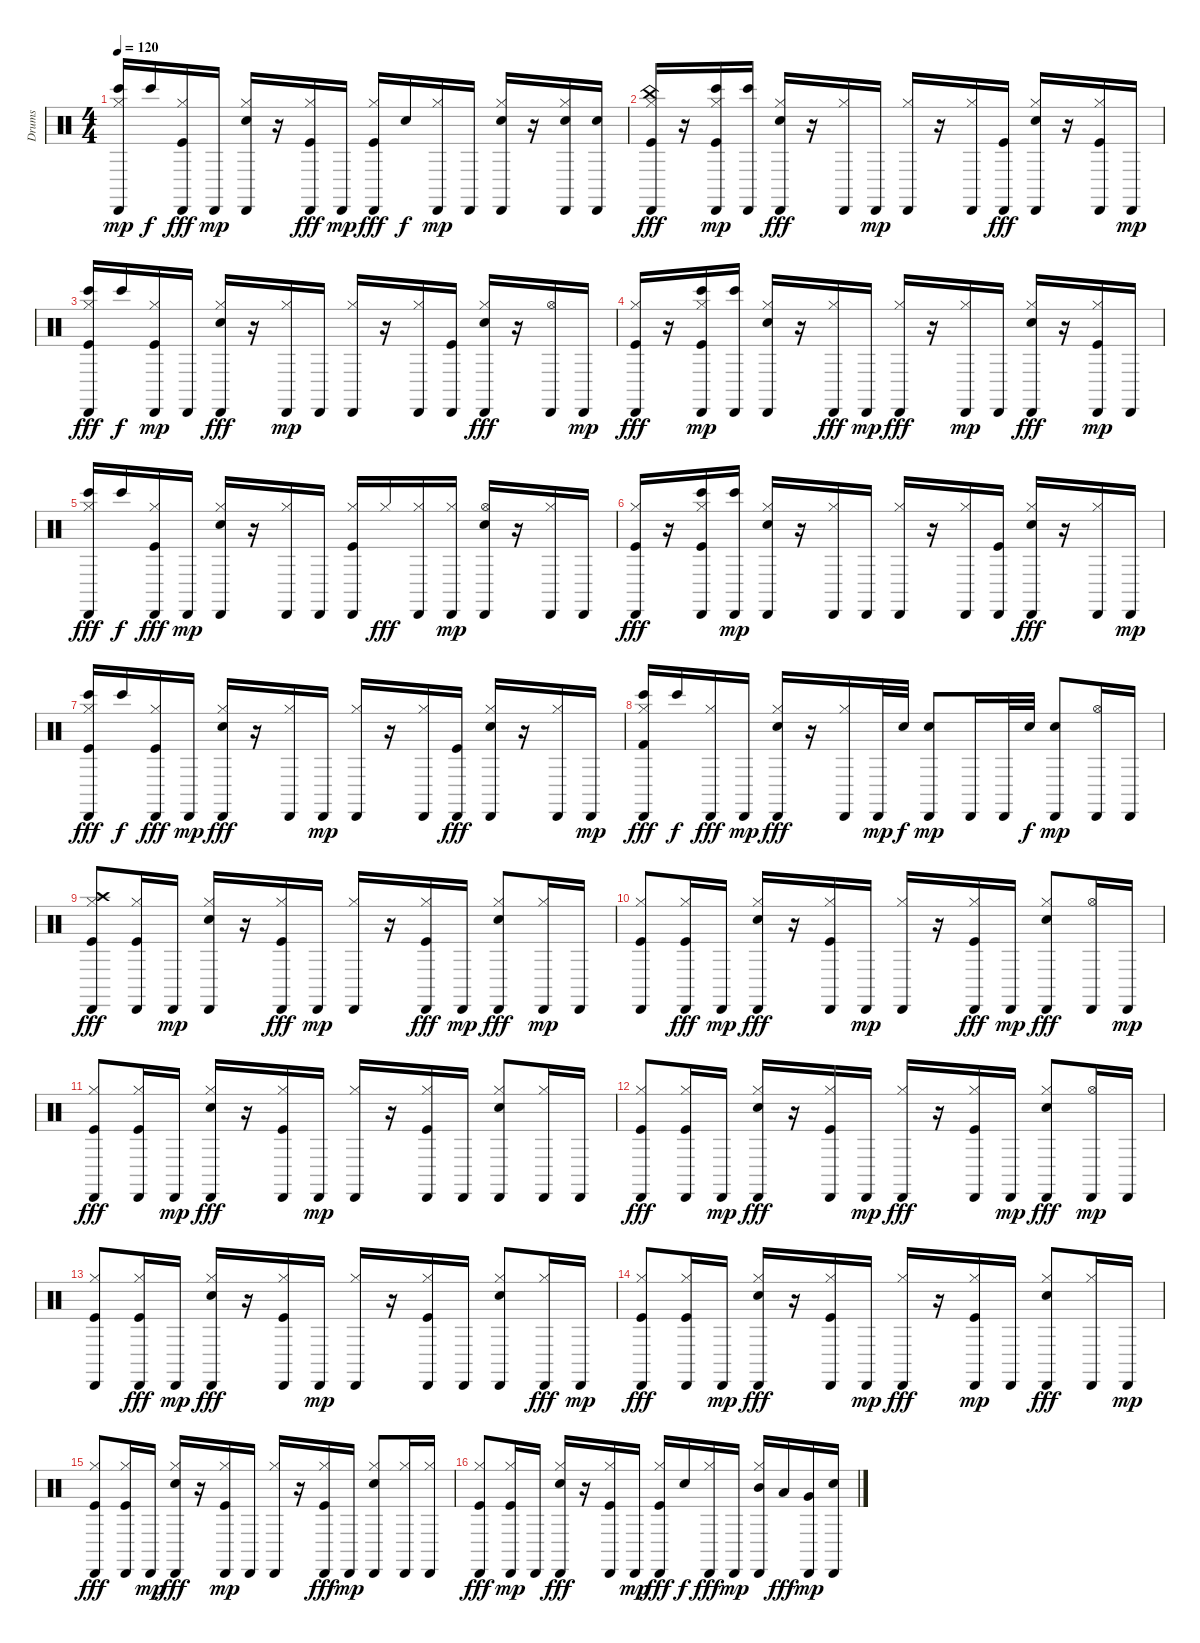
\track ("Drums" "Drums") {instrument percussion}
\staff {score}
\articulation defaults
\ts (4 4)
\tempo 120
\clef neutral
\ks c
("Hi-Hat (closed)" "Bongo High (hit)" "Cabasa (hit)").16{dy mp} "Bongo High (hit)".16{dy f} ("Hi-Hat (closed)" "Cabasa (hit)" "Kick (hit)").16{dy fff} "Cabasa (hit)".16{dy mp} ("Hi-Hat (closed)" "Snare (hit) 2" "Cabasa (hit)").16 r.16 ("Cabasa (hit)" "Hi-Hat (closed)" "Kick (hit)").16{dy fff} "Cabasa (hit)".16{dy mp} ("Cabasa (hit)" "Hi-Hat (closed)" "Kick (hit)").16{dy fff} "Snare (hit) 2".16{dy f} ("Hi-Hat (closed)" "Cabasa (hit)").16{dy mp} "Cabasa (hit)".16 ("Hi-Hat (closed)" "Cabasa (hit)" "Snare (hit) 2").16 r.16 ("Hi-Hat (closed)" "Snare (hit) 2" "Cabasa (hit)").16 ("Cabasa (hit)" "Snare (hit) 2").16 |
("Hi-Hat (closed)" "Cabasa (hit)" "Kick (hit)" "China (hit)").16{dy fff} r.16 ("Kick (hit)" "Hi-Hat (closed)" "Cabasa (hit)" "Bongo High (hit)").16{dy mp} ("Bongo High (hit)" "Cabasa (hit)").16 ("Cabasa (hit)" "Hi-Hat (closed)" "Snare (hit) 2").16{dy fff} r.16 ("Cabasa (hit)" "Hi-Hat (closed)").16 "Cabasa (hit)".16{dy mp} ("Hi-Hat (closed)" "Cabasa (hit)").16 r.16 ("Hi-Hat (closed)" "Cabasa (hit)").16 ("Cabasa (hit)" "Kick (hit)").16{dy fff} ("Cabasa (hit)" "Snare (hit) 2" "Hi-Hat (closed)").16 r.16 ("Cabasa (hit)" "Kick (hit)" "Hi-Hat (closed)").16 "Cabasa (hit)".16{dy mp} |
("Cabasa (hit)" "Bongo High (hit)" "Hi-Hat (closed)" "Kick (hit)").16{dy fff} "Bongo High (hit)".16{dy f} ("Hi-Hat (closed)" "Kick (hit)" "Cabasa (hit)").16{dy mp} "Cabasa (hit)".16 ("Cabasa (hit)" "Snare (hit) 2" "Hi-Hat (closed)").16{dy fff} r.16 ("Hi-Hat (closed)" "Cabasa (hit)").16{dy mp} "Cabasa (hit)".16 ("Hi-Hat (closed)" "Cabasa (hit)").16 r.16 ("Hi-Hat (closed)" "Cabasa (hit)").16 ("Kick (hit)" "Cabasa (hit)").16 ("Snare (hit) 2" "Cabasa (hit)" "Hi-Hat (closed)").16{dy fff} r.16 ("Cabasa (hit)" "Hi-Hat (open)").16 "Cabasa (hit)".16{dy mp} |
("Cabasa (hit)" "Kick (hit)" "Hi-Hat (closed)").16{dy fff} r.16 ("Kick (hit)" "Hi-Hat (closed)" "Cabasa (hit)" "Bongo High (hit)").16{dy mp} ("Cabasa (hit)" "Bongo High (hit)").16 ("Snare (hit) 2" "Hi-Hat (closed)" "Cabasa (hit)").16 r.16 ("Cabasa (hit)" "Hi-Hat (closed)").16{dy fff} "Cabasa (hit)".16{dy mp} ("Cabasa (hit)" "Hi-Hat (closed)").16{dy fff} r.16 ("Hi-Hat (closed)" "Cabasa (hit)").16{dy mp} "Cabasa (hit)".16 ("Cabasa (hit)" "Hi-Hat (closed)" "Snare (hit) 2").16{dy fff} r.16 ("Hi-Hat (closed)" "Kick (hit)" "Cabasa (hit)").16{dy mp} "Cabasa (hit)".16 |
("Bongo High (hit)" "Cabasa (hit)" "Hi-Hat (closed)").16{dy fff} "Bongo High (hit)".16{dy f} ("Hi-Hat (closed)" "Cabasa (hit)" "Kick (hit)").16{dy fff} "Cabasa (hit)".16{dy mp} ("Snare (hit) 2" "Hi-Hat (closed)" "Cabasa (hit)").16 r.16 ("Hi-Hat (closed)" "Cabasa (hit)").16 "Cabasa (hit)".16 ("Kick (hit)" "Hi-Hat (closed)" "Cabasa (hit)").16 "Hi-Hat (closed)".16{dy fff} ("Cabasa (hit)" "Hi-Hat (closed)").16 ("Hi-Hat (closed)" "Cabasa (hit)").16{dy mp} ("Hi-Hat (open)" "Snare (hit) 2" "Cabasa (hit)").16 r.16 ("Hi-Hat (closed)" "Cabasa (hit)").16 "Cabasa (hit)".16 |
("Hi-Hat (closed)" "Cabasa (hit)" "Kick (hit)").16{dy fff} r.16 ("Kick (hit)" "Cabasa (hit)" "Hi-Hat (closed)" "Bongo High (hit)").16 ("Bongo High (hit)" "Cabasa (hit)").16{dy mp} ("Hi-Hat (closed)" "Cabasa (hit)" "Snare (hit) 2").16 r.16 ("Hi-Hat (closed)" "Cabasa (hit)").16 "Cabasa (hit)".16 ("Hi-Hat (closed)" "Cabasa (hit)").16 r.16 ("Hi-Hat (closed)" "Cabasa (hit)").16 ("Kick (hit)" "Cabasa (hit)").16 ("Snare (hit) 2" "Cabasa (hit)" "Hi-Hat (closed)").16{dy fff} r.16 ("Cabasa (hit)" "Hi-Hat (closed)").16 "Cabasa (hit)".16{dy mp} |
("Cabasa (hit)" "Hi-Hat (closed)" "Kick (hit)" "Bongo High (hit)").16{dy fff} "Bongo High (hit)".16{dy f} ("Cabasa (hit)" "Hi-Hat (closed)" "Kick (hit)").16{dy fff} "Cabasa (hit)".16{dy mp} ("Cabasa (hit)" "Snare (hit) 2" "Hi-Hat (closed)").16{dy fff} r.16 ("Cabasa (hit)" "Hi-Hat (closed)").16 "Cabasa (hit)".16{dy mp} ("Hi-Hat (closed)" "Cabasa (hit)").16 r.16 ("Hi-Hat (closed)" "Cabasa (hit)").16 ("Cabasa (hit)" "Kick (hit)").16{dy fff} ("Cabasa (hit)" "Hi-Hat (closed)" "Snare (hit) 2").16 r.16 ("Cabasa (hit)" "Hi-Hat (closed)").16 "Cabasa (hit)".16{dy mp} |
("Cabasa (hit)" "Kick (hit) 2" "Hi-Hat (closed)" "Bongo High (hit)").16{dy fff} "Bongo High (hit)".16{dy f} ("Cabasa (hit)" "Hi-Hat (closed)").16{dy fff} "Cabasa (hit)".16{dy mp} ("Cabasa (hit)" "Snare (hit) 2" "Hi-Hat (closed)").16{dy fff} r.16 ("Cabasa (hit)" "Hi-Hat (closed)").16 "Cabasa (hit)".32{dy mp} "Electric Snare (hit)".32{dy f} ("Cabasa (hit)" "Snare (hit) 2").8{dy mp} "Cabasa (hit)".16 "Cabasa (hit)".32 "Electric Snare (hit)".32{dy f} ("Snare (hit) 2" "Cabasa (hit)").8{dy mp} ("Hi-Hat (open)" "Cabasa (hit)").16 "Cabasa (hit)".16 |
("Kick (hit)" "Cabasa (hit)" "Hi-Hat (closed)" "Crash high (hit)").8{dy fff} ("Hi-Hat (closed)" "Cabasa (hit)" "Kick (hit)").16 "Cabasa (hit)".16{dy mp} ("Hi-Hat (closed)" "Cabasa (hit)" "Snare (hit) 2").16 r.16 ("Hi-Hat (closed)" "Cabasa (hit)" "Kick (hit)").16{dy fff} "Cabasa (hit)".16{dy mp} ("Hi-Hat (closed)" "Cabasa (hit)").16 r.16 ("Kick (hit)" "Cabasa (hit)" "Hi-Hat (closed)").16{dy fff} "Cabasa (hit)".16{dy mp} ("Cabasa (hit)" "Hi-Hat (closed)" "Snare (hit) 2").8{dy fff} ("Hi-Hat (closed)" "Cabasa (hit)").16{dy mp} "Cabasa (hit)".16 |
("Hi-Hat (closed)" "Kick (hit)" "Cabasa (hit)").8 ("Kick (hit)" "Cabasa (hit)" "Hi-Hat (closed)").16{dy fff} "Cabasa (hit)".16{dy mp} ("Cabasa (hit)" "Snare (hit) 2" "Hi-Hat (closed)").16{dy fff} r.16 ("Cabasa (hit)" "Hi-Hat (closed)" "Kick (hit)").16 "Cabasa (hit)".16{dy mp} ("Hi-Hat (closed)" "Cabasa (hit)").16 r.16 ("Cabasa (hit)" "Hi-Hat (closed)" "Kick (hit)").16{dy fff} "Cabasa (hit)".16{dy mp} ("Cabasa (hit)" "Snare (hit) 2" "Hi-Hat (closed)").8{dy fff} ("Cabasa (hit)" "Hi-Hat (open)").16 "Cabasa (hit)".16{dy mp} |
("Cabasa (hit)" "Hi-Hat (closed)" "Kick (hit)").8{dy fff} ("Cabasa (hit)" "Kick (hit)" "Hi-Hat (closed)").16 "Cabasa (hit)".16{dy mp} ("Cabasa (hit)" "Hi-Hat (closed)" "Snare (hit) 2").16{dy fff} r.16 ("Kick (hit)" "Cabasa (hit)" "Hi-Hat (closed)").16 "Cabasa (hit)".16{dy mp} ("Hi-Hat (closed)" "Cabasa (hit)").16 r.16 ("Kick (hit)" "Hi-Hat (closed)" "Cabasa (hit)").16 "Cabasa (hit)".16 ("Snare (hit) 2" "Hi-Hat (closed)" "Cabasa (hit)").8 ("Hi-Hat (closed)" "Cabasa (hit)").16 "Cabasa (hit)".16 |
("Cabasa (hit)" "Hi-Hat (closed)" "Kick (hit)").8{dy fff} ("Kick (hit)" "Cabasa (hit)" "Hi-Hat (closed)").16 "Cabasa (hit)".16{dy mp} ("Cabasa (hit)" "Snare (hit) 2" "Hi-Hat (closed)").16{dy fff} r.16 ("Hi-Hat (closed)" "Cabasa (hit)" "Kick (hit)").16 "Cabasa (hit)".16{dy mp} ("Cabasa (hit)" "Hi-Hat (closed)").16{dy fff} r.16 ("Hi-Hat (closed)" "Cabasa (hit)" "Kick (hit)").16 "Cabasa (hit)".16{dy mp} ("Snare (hit) 2" "Cabasa (hit)" "Hi-Hat (closed)").8{dy fff} ("Hi-Hat (open)" "Cabasa (hit)").16{dy mp} "Cabasa (hit)".16 |
("Kick (hit)" "Hi-Hat (closed)" "Cabasa (hit)").8 ("Cabasa (hit)" "Kick (hit)" "Hi-Hat (closed)").16{dy fff} "Cabasa (hit)".16{dy mp} ("Cabasa (hit)" "Hi-Hat (closed)" "Snare (hit) 2").16{dy fff} r.16 ("Kick (hit)" "Cabasa (hit)" "Hi-Hat (closed)").16 "Cabasa (hit)".16{dy mp} ("Hi-Hat (closed)" "Cabasa (hit)").16 r.16 ("Kick (hit)" "Hi-Hat (closed)" "Cabasa (hit)").16 "Cabasa (hit)".16 ("Snare (hit) 2" "Hi-Hat (closed)" "Cabasa (hit)").8 ("Cabasa (hit)" "Hi-Hat (closed)").16{dy fff} "Cabasa (hit)".16{dy mp} |
("Cabasa (hit)" "Kick (hit)" "Hi-Hat (closed)").8{dy fff} ("Cabasa (hit)" "Kick (hit)" "Hi-Hat (closed)").16 "Cabasa (hit)".16{dy mp} ("Cabasa (hit)" "Snare (hit) 2" "Hi-Hat (closed)").16{dy fff} r.16 ("Cabasa (hit)" "Kick (hit)" "Hi-Hat (closed)").16 "Cabasa (hit)".16{dy mp} ("Cabasa (hit)" "Hi-Hat (closed)").16{dy fff} r.16 ("Hi-Hat (closed)" "Kick (hit)" "Cabasa (hit)").16{dy mp} "Cabasa (hit)".16 ("Cabasa (hit)" "Hi-Hat (closed)" "Snare (hit) 2").8{dy fff} ("Cabasa (hit)" "Hi-Hat (closed)").16 "Cabasa (hit)".16{dy mp} |
("Cabasa (hit)" "Kick (hit)" "Hi-Hat (closed)").8{dy fff} ("Cabasa (hit)" "Kick (hit)" "Hi-Hat (closed)").16 "Cabasa (hit)".16{dy mp} ("Snare (hit) 2" "Cabasa (hit)" "Hi-Hat (closed)").16{dy fff} r.16 ("Kick (hit)" "Hi-Hat (closed)" "Cabasa (hit)").16{dy mp} "Cabasa (hit)".16 ("Hi-Hat (closed)" "Cabasa (hit)").16 r.16 ("Cabasa (hit)" "Hi-Hat (closed)" "Kick (hit)").16{dy fff} "Cabasa (hit)".16{dy mp} ("Hi-Hat (closed)" "Snare (hit) 2" "Cabasa (hit)").8 ("Hi-Hat (closed)" "Cabasa (hit)").16 ("Hi-Hat (closed)" "Cabasa (hit)").16 |
("Cabasa (hit)" "Kick (hit)" "Hi-Hat (closed)").8{dy fff} ("Kick (hit)" "Hi-Hat (closed)" "Cabasa (hit)").16{dy mp} "Cabasa (hit)".16 ("Snare (hit) 2" "Cabasa (hit)" "Hi-Hat (closed)").16{dy fff} r.16 ("Kick (hit)" "Cabasa (hit)" "Hi-Hat (closed)").16 "Cabasa (hit)".16{dy mp} ("Cabasa (hit)" "Hi-Hat (closed)" "Kick (hit)").16{dy fff} "Snare (hit) 2".16{dy f} ("Cabasa (hit)" "Hi-Hat (closed)").16{dy fff} "Cabasa (hit)".16{dy mp} ("Hi-Hat (closed)" "Mid Tom (hit)" "Cabasa (hit)").16 "Low Tom (hit)".16{dy fff} ("Very Low Tom (hit)" "Cabasa (hit)").16{dy mp} ("Cabasa (hit)" "Snare (hit) 2").16
